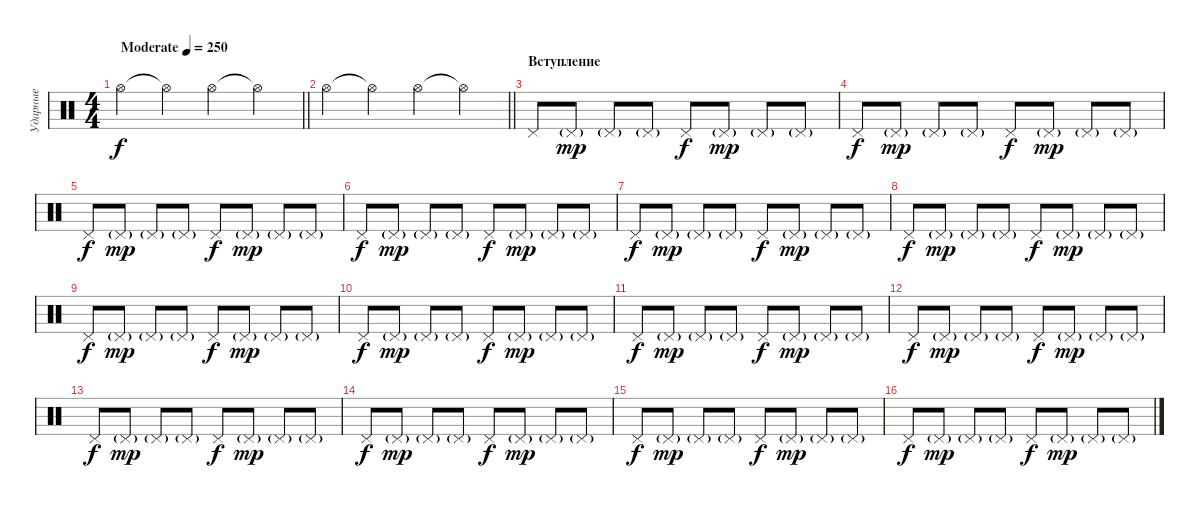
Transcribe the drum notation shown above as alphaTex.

\track ("Ударные" "Ударные") {instrument percussion}
\staff {score}
\articulation defaults
\ts (4 4)
\tempo (250 "Moderate")
\clef neutral
\barLineRight lightlight
\ks c "Hi-Hat (open)".4{dy f} "Hi-Hat (open)"{t}.4 "Hi-Hat (open)".4 "Hi-Hat (open)"{t}.4
|
\barLineRight lightlight "Hi-Hat (open)".4 "Hi-Hat (open)"{t}.4 "Hi-Hat (open)".4 "Hi-Hat (open)"{t}.4
|
\section ("" "Вступление")
"Pedal Hi-Hat (hit)".8 "Pedal Hi-Hat (hit)"{g}.8{dy mp} "Pedal Hi-Hat (hit)"{g}.8 "Pedal Hi-Hat (hit)"{g}.8 "Pedal Hi-Hat (hit)".8{dy f} "Pedal Hi-Hat (hit)"{g}.8{dy mp} "Pedal Hi-Hat (hit)"{g}.8 "Pedal Hi-Hat (hit)"{g}.8 |
"Pedal Hi-Hat (hit)".8{dy f} "Pedal Hi-Hat (hit)"{g}.8{dy mp} "Pedal Hi-Hat (hit)"{g}.8 "Pedal Hi-Hat (hit)"{g}.8 "Pedal Hi-Hat (hit)".8{dy f} "Pedal Hi-Hat (hit)"{g}.8{dy mp} "Pedal Hi-Hat (hit)"{g}.8 "Pedal Hi-Hat (hit)"{g}.8 |
"Pedal Hi-Hat (hit)".8{dy f} "Pedal Hi-Hat (hit)"{g}.8{dy mp} "Pedal Hi-Hat (hit)"{g}.8 "Pedal Hi-Hat (hit)"{g}.8 "Pedal Hi-Hat (hit)".8{dy f} "Pedal Hi-Hat (hit)"{g}.8{dy mp} "Pedal Hi-Hat (hit)"{g}.8 "Pedal Hi-Hat (hit)"{g}.8 |
"Pedal Hi-Hat (hit)".8{dy f} "Pedal Hi-Hat (hit)"{g}.8{dy mp} "Pedal Hi-Hat (hit)"{g}.8 "Pedal Hi-Hat (hit)"{g}.8 "Pedal Hi-Hat (hit)".8{dy f} "Pedal Hi-Hat (hit)"{g}.8{dy mp} "Pedal Hi-Hat (hit)"{g}.8 "Pedal Hi-Hat (hit)"{g}.8 |
"Pedal Hi-Hat (hit)".8{dy f} "Pedal Hi-Hat (hit)"{g}.8{dy mp} "Pedal Hi-Hat (hit)"{g}.8 "Pedal Hi-Hat (hit)"{g}.8 "Pedal Hi-Hat (hit)".8{dy f} "Pedal Hi-Hat (hit)"{g}.8{dy mp} "Pedal Hi-Hat (hit)"{g}.8 "Pedal Hi-Hat (hit)"{g}.8 |
"Pedal Hi-Hat (hit)".8{dy f} "Pedal Hi-Hat (hit)"{g}.8{dy mp} "Pedal Hi-Hat (hit)"{g}.8 "Pedal Hi-Hat (hit)"{g}.8 "Pedal Hi-Hat (hit)".8{dy f} "Pedal Hi-Hat (hit)"{g}.8{dy mp} "Pedal Hi-Hat (hit)"{g}.8 "Pedal Hi-Hat (hit)"{g}.8 |
"Pedal Hi-Hat (hit)".8{dy f} "Pedal Hi-Hat (hit)"{g}.8{dy mp} "Pedal Hi-Hat (hit)"{g}.8 "Pedal Hi-Hat (hit)"{g}.8 "Pedal Hi-Hat (hit)".8{dy f} "Pedal Hi-Hat (hit)"{g}.8{dy mp} "Pedal Hi-Hat (hit)"{g}.8 "Pedal Hi-Hat (hit)"{g}.8 |
"Pedal Hi-Hat (hit)".8{dy f} "Pedal Hi-Hat (hit)"{g}.8{dy mp} "Pedal Hi-Hat (hit)"{g}.8 "Pedal Hi-Hat (hit)"{g}.8 "Pedal Hi-Hat (hit)".8{dy f} "Pedal Hi-Hat (hit)"{g}.8{dy mp} "Pedal Hi-Hat (hit)"{g}.8 "Pedal Hi-Hat (hit)"{g}.8 |
"Pedal Hi-Hat (hit)".8{dy f} "Pedal Hi-Hat (hit)"{g}.8{dy mp} "Pedal Hi-Hat (hit)"{g}.8 "Pedal Hi-Hat (hit)"{g}.8 "Pedal Hi-Hat (hit)".8{dy f} "Pedal Hi-Hat (hit)"{g}.8{dy mp} "Pedal Hi-Hat (hit)"{g}.8 "Pedal Hi-Hat (hit)"{g}.8 |
"Pedal Hi-Hat (hit)".8{dy f} "Pedal Hi-Hat (hit)"{g}.8{dy mp} "Pedal Hi-Hat (hit)"{g}.8 "Pedal Hi-Hat (hit)"{g}.8 "Pedal Hi-Hat (hit)".8{dy f} "Pedal Hi-Hat (hit)"{g}.8{dy mp} "Pedal Hi-Hat (hit)"{g}.8 "Pedal Hi-Hat (hit)"{g}.8 |
"Pedal Hi-Hat (hit)".8{dy f} "Pedal Hi-Hat (hit)"{g}.8{dy mp} "Pedal Hi-Hat (hit)"{g}.8 "Pedal Hi-Hat (hit)"{g}.8 "Pedal Hi-Hat (hit)".8{dy f} "Pedal Hi-Hat (hit)"{g}.8{dy mp} "Pedal Hi-Hat (hit)"{g}.8 "Pedal Hi-Hat (hit)"{g}.8 |
"Pedal Hi-Hat (hit)".8{dy f} "Pedal Hi-Hat (hit)"{g}.8{dy mp} "Pedal Hi-Hat (hit)"{g}.8 "Pedal Hi-Hat (hit)"{g}.8 "Pedal Hi-Hat (hit)".8{dy f} "Pedal Hi-Hat (hit)"{g}.8{dy mp} "Pedal Hi-Hat (hit)"{g}.8 "Pedal Hi-Hat (hit)"{g}.8 |
"Pedal Hi-Hat (hit)".8{dy f} "Pedal Hi-Hat (hit)"{g}.8{dy mp} "Pedal Hi-Hat (hit)"{g}.8 "Pedal Hi-Hat (hit)"{g}.8 "Pedal Hi-Hat (hit)".8{dy f} "Pedal Hi-Hat (hit)"{g}.8{dy mp} "Pedal Hi-Hat (hit)"{g}.8 "Pedal Hi-Hat (hit)"{g}.8 |
"Pedal Hi-Hat (hit)".8{dy f} "Pedal Hi-Hat (hit)"{g}.8{dy mp} "Pedal Hi-Hat (hit)"{g}.8 "Pedal Hi-Hat (hit)"{g}.8 "Pedal Hi-Hat (hit)".8{dy f} "Pedal Hi-Hat (hit)"{g}.8{dy mp} "Pedal Hi-Hat (hit)"{g}.8 "Pedal Hi-Hat (hit)"{g}.8
